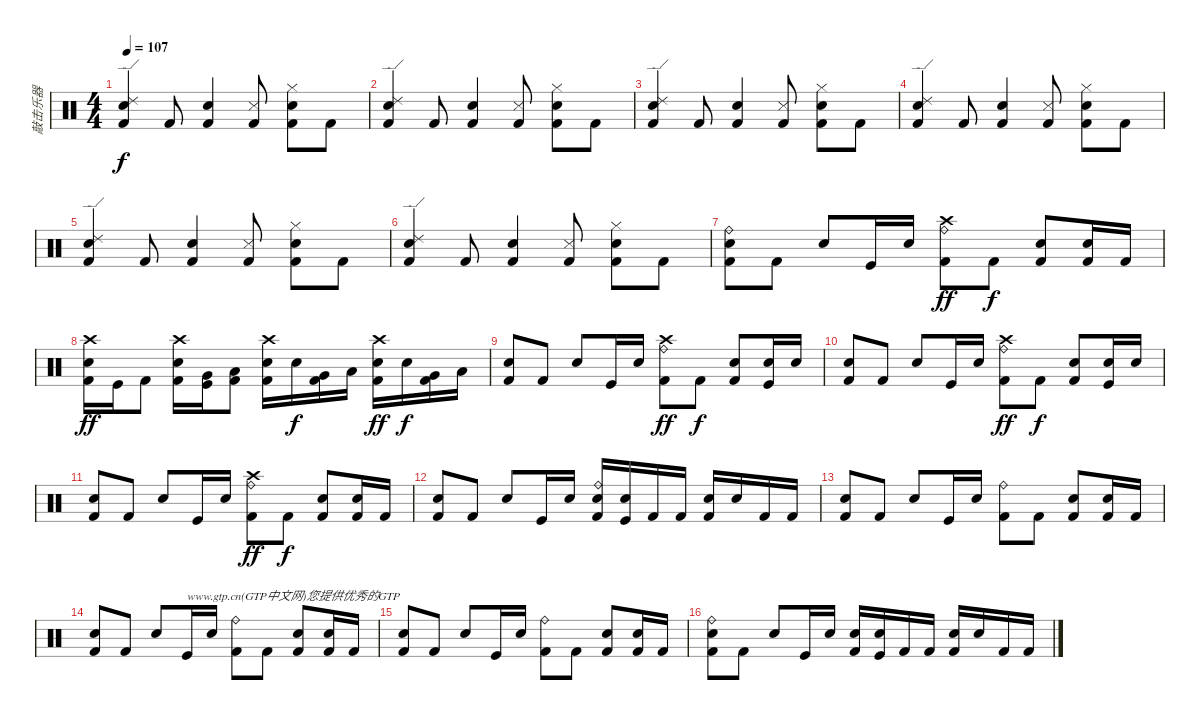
\track ("敲击乐器" "敲击乐器") {instrument percussion}
\staff {score}
\articulation defaults
\ts (4 4)
\tempo 107
\clef neutral
\ks c
("Ride (edge) 2" "Snare (hit) 2" "Kick (hit) 2").4{dy f} "Kick (hit) 2".8 ("Snare (hit) 2" "Kick (hit) 2").4 ("Snare (side stick) 3" "Kick (hit) 2").8 ("Hi-Hat (closed)" "Snare (hit) 2" "Kick (hit) 2").8 "Kick (hit) 2".8 |
("Ride (edge) 2" "Snare (hit) 2" "Kick (hit) 2").4 "Kick (hit) 2".8 ("Snare (hit) 2" "Kick (hit) 2").4 ("Snare (side stick) 3" "Kick (hit) 2").8 ("Hi-Hat (closed)" "Snare (hit) 2" "Kick (hit) 2").8 "Kick (hit) 2".8 |
("Ride (edge) 2" "Snare (hit) 2" "Kick (hit) 2").4 "Kick (hit) 2".8 ("Snare (hit) 2" "Kick (hit) 2").4 ("Snare (side stick) 3" "Kick (hit) 2").8 ("Hi-Hat (closed)" "Snare (hit) 2" "Kick (hit) 2").8 "Kick (hit) 2".8 |
("Ride (edge) 2" "Snare (hit) 2" "Kick (hit) 2").4 "Kick (hit) 2".8 ("Snare (hit) 2" "Kick (hit) 2").4 ("Snare (side stick) 3" "Kick (hit) 2").8 ("Hi-Hat (closed)" "Snare (hit) 2" "Kick (hit) 2").8 "Kick (hit) 2".8 |
("Ride (edge) 2" "Snare (hit) 2" "Kick (hit) 2").4 "Kick (hit) 2".8 ("Snare (hit) 2" "Kick (hit) 2").4 ("Snare (side stick) 3" "Kick (hit) 2").8 ("Hi-Hat (closed)" "Snare (hit) 2" "Kick (hit) 2").8 "Kick (hit) 2".8 |
("Ride (edge) 2" "Snare (hit) 2" "Kick (hit) 2").4 "Kick (hit) 2".8 ("Snare (hit) 2" "Kick (hit) 2").4 ("Snare (side stick) 3" "Kick (hit) 2").8 ("Hi-Hat (closed)" "Snare (hit) 2" "Kick (hit) 2").8 "Kick (hit) 2".8 |
("Ride (bell)" "Snare (hit) 2" "Kick (hit) 2").8 "Kick (hit) 2".8 "Electric Snare (hit)".8 "Kick (hit)".16 "Electric Snare (hit)".16 ("Ride (bell)" "Kick (hit) 2" "Crash high (hit)").8{dy ff} "Kick (hit) 2".8{dy f} ("Electric Snare (hit)" "Kick (hit) 2").8 ("Snare (hit) 2" "Kick (hit) 2").16 "Kick (hit) 2".16 |
("Crash high (hit)" "Electric Snare (hit)" "Kick (hit) 2").16{dy ff} "Kick (hit)".16 "Kick (hit) 2".8 ("Crash high (hit)" "Snare (hit) 2" "Kick (hit) 2").16 ("Very Low Tom (hit)" "Kick (hit)").16 ("Low Floor Tom (hit)" "Kick (hit) 2").8 ("Crash high (hit)" "Electric Snare (hit)" "Kick (hit) 2").16 "Snare (hit) 2".16{dy f} ("Very Low Tom (hit)" "Kick (hit) 2").16 "Low Floor Tom (hit)".16 ("Crash high (hit)" "Electric Snare (hit)" "Kick (hit) 2").16{dy ff} "Snare (hit) 2".16{dy f} ("Very Low Tom (hit)" "Kick (hit) 2").16 "Low Floor Tom (hit)".16 |
("Snare (hit) 2" "Kick (hit) 2").8 "Kick (hit) 2".8 "Electric Snare (hit)".8 "Kick (hit)".16 "Electric Snare (hit)".16 ("Ride (bell)" "Kick (hit) 2" "Crash high (hit)").8{dy ff} "Kick (hit) 2".8{dy f} ("Electric Snare (hit)" "Kick (hit) 2").8 ("Snare (hit) 2" "Kick (hit)").16 "Snare (hit) 2".16 |
("Snare (hit) 2" "Kick (hit) 2").8 "Kick (hit) 2".8 "Electric Snare (hit)".8 "Kick (hit)".16 "Electric Snare (hit)".16 ("Ride (bell)" "Kick (hit) 2" "Crash high (hit)").8{dy ff} "Kick (hit) 2".8{dy f} ("Electric Snare (hit)" "Kick (hit) 2").8 ("Snare (hit) 2" "Kick (hit)").16 "Snare (hit) 2".16 |
("Snare (hit) 2" "Kick (hit) 2").8 "Kick (hit) 2".8 "Electric Snare (hit)".8 "Kick (hit)".16 "Electric Snare (hit)".16 ("Ride (bell)" "Kick (hit) 2" "Crash high (hit)").8{dy ff} "Kick (hit) 2".8{dy f} ("Electric Snare (hit)" "Kick (hit) 2").8 ("Snare (hit) 2" "Kick (hit) 2").16 "Kick (hit) 2".16 |
("Snare (hit) 2" "Kick (hit) 2").8 "Kick (hit) 2".8 "Electric Snare (hit)".8 "Kick (hit)".16 "Electric Snare (hit)".16 ("Ride (bell)" "Electric Snare (hit)" "Kick (hit) 2").16 ("Snare (hit) 2" "Kick (hit)").16 "Kick (hit) 2".16 "Kick (hit) 2".16 ("Electric Snare (hit)" "Kick (hit) 2").16 "Snare (hit) 2".16 "Kick (hit) 2".16 "Kick (hit) 2".16 |
("Snare (hit) 2" "Kick (hit) 2").8 "Kick (hit) 2".8 "Electric Snare (hit)".8 "Kick (hit)".16 "Electric Snare (hit)".16 ("Ride (bell)" "Kick (hit) 2").8 "Kick (hit) 2".8 ("Electric Snare (hit)" "Kick (hit) 2").8 ("Snare (hit) 2" "Kick (hit) 2").16 "Kick (hit) 2".16 |
("Snare (hit) 2" "Kick (hit) 2").8 "Kick (hit) 2".8 "Electric Snare (hit)".8 "Kick (hit)".16{txt "www.gtp.cn(GTP中文网)您提供优秀的GTP"} "Electric Snare (hit)".16 ("Ride (bell)" "Kick (hit) 2").8 "Kick (hit) 2".8 ("Electric Snare (hit)" "Kick (hit) 2").8 ("Snare (hit) 2" "Kick (hit) 2").16 "Kick (hit) 2".16 |
("Snare (hit) 2" "Kick (hit) 2").8 "Kick (hit) 2".8 "Electric Snare (hit)".8 "Kick (hit)".16 "Electric Snare (hit)".16 ("Ride (bell)" "Kick (hit) 2").8 "Kick (hit) 2".8 ("Electric Snare (hit)" "Kick (hit) 2").8 ("Snare (hit) 2" "Kick (hit) 2").16 "Kick (hit) 2".16 |
("Ride (bell)" "Snare (hit) 2" "Kick (hit) 2").8 "Kick (hit) 2".8 "Electric Snare (hit)".8 "Kick (hit)".16 "Electric Snare (hit)".16 ("Electric Snare (hit)" "Kick (hit) 2").16 ("Snare (hit) 2" "Kick (hit)").16 "Kick (hit) 2".16 "Kick (hit) 2".16 ("Electric Snare (hit)" "Kick (hit) 2").16 "Snare (hit) 2".16 "Kick (hit) 2".16 "Kick (hit) 2".16
